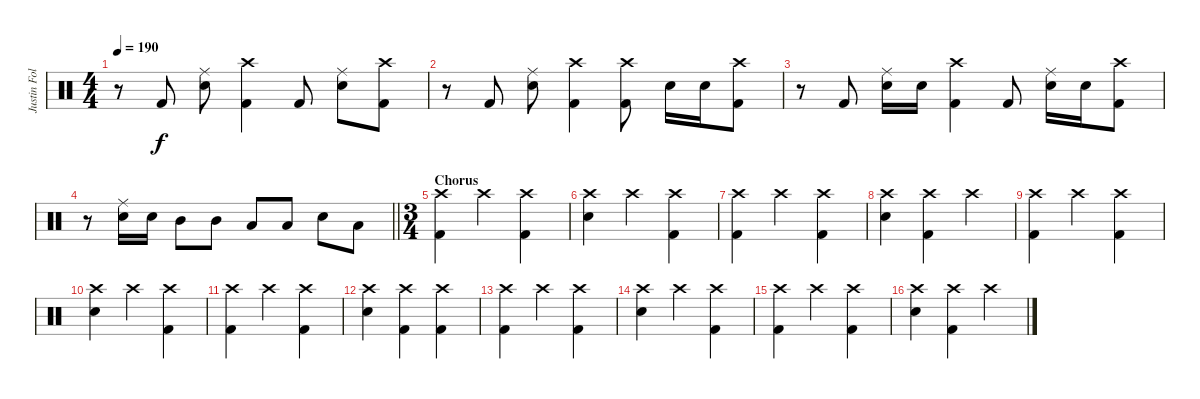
\track ("Justin Foley" "Justin Fol") {instrument percussion}
\staff {score}
\articulation defaults
\ts (4 4)
\tempo 190
\clef neutral
\ks c
r.8{dy f} "Kick (hit) 2".8 ("Ride (middle)" "Electric Snare (hit)").8 ("Crash high (hit)" "Kick (hit) 2").4 "Kick (hit) 2".8 ("Ride (middle)" "Electric Snare (hit)").8 ("Crash high (hit)" "Kick (hit) 2").8 |
r.8 "Kick (hit) 2".8 ("Ride (middle)" "Electric Snare (hit)").8 ("Crash high (hit)" "Kick (hit) 2").4 ("Crash high (hit)" "Kick (hit) 2").8 "Electric Snare (hit)".16 "Electric Snare (hit)".16 ("Crash high (hit)" "Kick (hit) 2").8 |
r.8 "Kick (hit) 2".8 ("Ride (middle)" "Electric Snare (hit)").16 "Electric Snare (hit)".16 ("Crash high (hit)" "Kick (hit) 2").4 "Kick (hit) 2".8 ("Ride (middle)" "Electric Snare (hit)").16 "Electric Snare (hit)".16 ("Crash high (hit)" "Kick (hit) 2").8 |
\barLineRight lightlight
r.8 ("Ride (middle)" "Electric Snare (hit)").16 "Electric Snare (hit)".16 "Mid Tom (hit)".8 "Mid Tom (hit)".8 "Low Tom (hit)".8 "Low Tom (hit)".8 "Electric Snare (hit)".8 "Low Tom (hit)".8 |
\ts (3 4)
\section ("" "Chorus")
("Crash high (hit)" "Kick (hit) 2").4 "Crash high (hit)".4 ("Crash high (hit)" "Kick (hit) 2").4 |
("Crash high (hit)" "Electric Snare (hit)").4 "Crash high (hit)".4 ("Crash high (hit)" "Kick (hit) 2").4 |
("Crash high (hit)" "Kick (hit) 2").4 "Crash high (hit)".4 ("Crash high (hit)" "Kick (hit) 2").4 |
("Crash high (hit)" "Electric Snare (hit)").4 ("Crash high (hit)" "Kick (hit) 2").4 "Crash high (hit)".4 |
("Crash high (hit)" "Kick (hit) 2").4 "Crash high (hit)".4 ("Crash high (hit)" "Kick (hit) 2").4 |
("Crash high (hit)" "Electric Snare (hit)").4 "Crash high (hit)".4 ("Crash high (hit)" "Kick (hit) 2").4 |
("Crash high (hit)" "Kick (hit) 2").4 "Crash high (hit)".4 ("Crash high (hit)" "Kick (hit) 2").4 |
("Crash high (hit)" "Electric Snare (hit)").4 ("Crash high (hit)" "Kick (hit) 2").4 ("Crash high (hit)" "Kick (hit) 2").4 |
("Crash high (hit)" "Kick (hit) 2").4 "Crash high (hit)".4 ("Crash high (hit)" "Kick (hit) 2").4 |
("Crash high (hit)" "Electric Snare (hit)").4 "Crash high (hit)".4 ("Crash high (hit)" "Kick (hit) 2").4 |
("Crash high (hit)" "Kick (hit) 2").4 "Crash high (hit)".4 ("Crash high (hit)" "Kick (hit) 2").4 |
("Crash high (hit)" "Electric Snare (hit)").4 ("Crash high (hit)" "Kick (hit) 2").4 "Crash high (hit)".4
